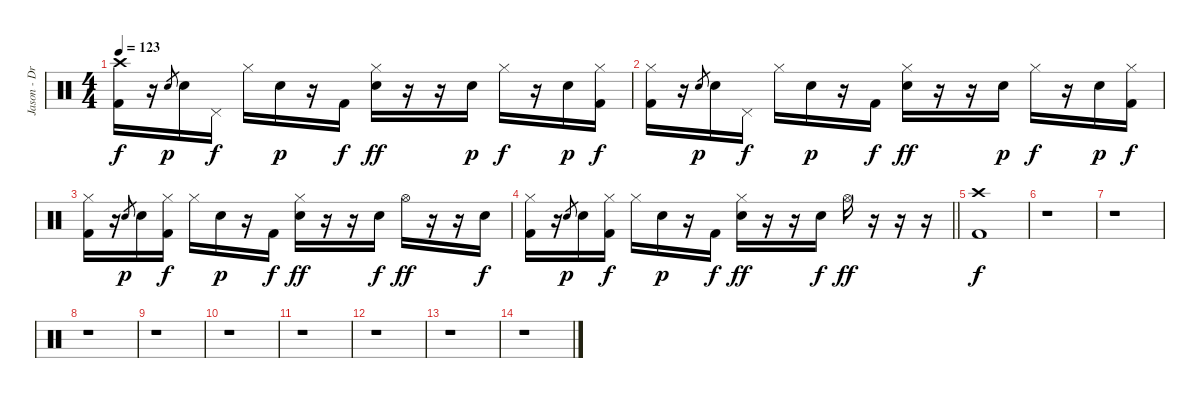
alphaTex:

\track ("Jason - Drums" "Jason - Dr") {instrument percussion}
\staff {score}
\articulation defaults
\ts (4 4)
\tempo 123
\clef neutral
\ks c
("Crash high (hit)" "Kick (hit) 2").16{dy f} r.16 "Snare (hit) 2".8{gr dy p} "Snare (hit) 2".16 "Pedal Hi-Hat (hit)".16{dy f} "Hi-Hat (closed)".16 "Snare (hit) 2".16{dy p} r.16 "Kick (hit) 2".16{dy f} ("Hi-Hat (closed)" "Electric Snare (hit)").16{dy ff} r.16 r.16 "Snare (hit) 2".16{dy p} "Hi-Hat (closed)".16{dy f} r.16 "Snare (hit) 2".16{dy p} ("Hi-Hat (closed)" "Kick (hit) 2").16{dy f} |
("Hi-Hat (closed)" "Kick (hit) 2").16 r.16 "Snare (hit) 2".8{gr dy p} "Snare (hit) 2".16 "Pedal Hi-Hat (hit)".16{dy f} "Hi-Hat (closed)".16 "Snare (hit) 2".16{dy p} r.16 "Kick (hit) 2".16{dy f} ("Hi-Hat (closed)" "Electric Snare (hit)").16{dy ff} r.16 r.16 "Snare (hit) 2".16{dy p} "Hi-Hat (closed)".16{dy f} r.16 "Snare (hit) 2".16{dy p} ("Hi-Hat (closed)" "Kick (hit) 2").16{dy f} |
("Hi-Hat (closed)" "Kick (hit) 2").16 r.16 "Snare (hit) 2".8{gr dy p} "Snare (hit) 2".16 ("Hi-Hat (closed)" "Kick (hit) 2").16{dy f} "Hi-Hat (closed)".16 "Snare (hit) 2".16{dy p} r.16 "Kick (hit) 2".16{dy f} ("Hi-Hat (closed)" "Electric Snare (hit)").16{dy ff} r.16 r.16 "Electric Snare (hit)".16{dy f} "Hi-Hat (open)".16{dy ff} r.16 r.16 "Snare (hit) 2".16{dy f} |
\barLineRight lightlight
("Hi-Hat (closed)" "Kick (hit) 2").16 r.16 "Snare (hit) 2".8{gr dy p} "Snare (hit) 2".16 ("Hi-Hat (closed)" "Kick (hit) 2").16{dy f} "Hi-Hat (closed)".16 "Snare (hit) 2".16{dy p} r.16 "Kick (hit) 2".16{dy f} ("Hi-Hat (closed)" "Electric Snare (hit)").16{dy ff} r.16 r.16 "Electric Snare (hit)".16{dy f} "Hi-Hat (open)".16{dy ff} r.16 r.16 r.16 |
("Crash high (hit)" "Kick (hit) 2").1{dy f} |
r.1 |
r.1 |
r.1 |
r.1 |
r.1 |
r.1 |
r.1 |
r.1 |
r.1
